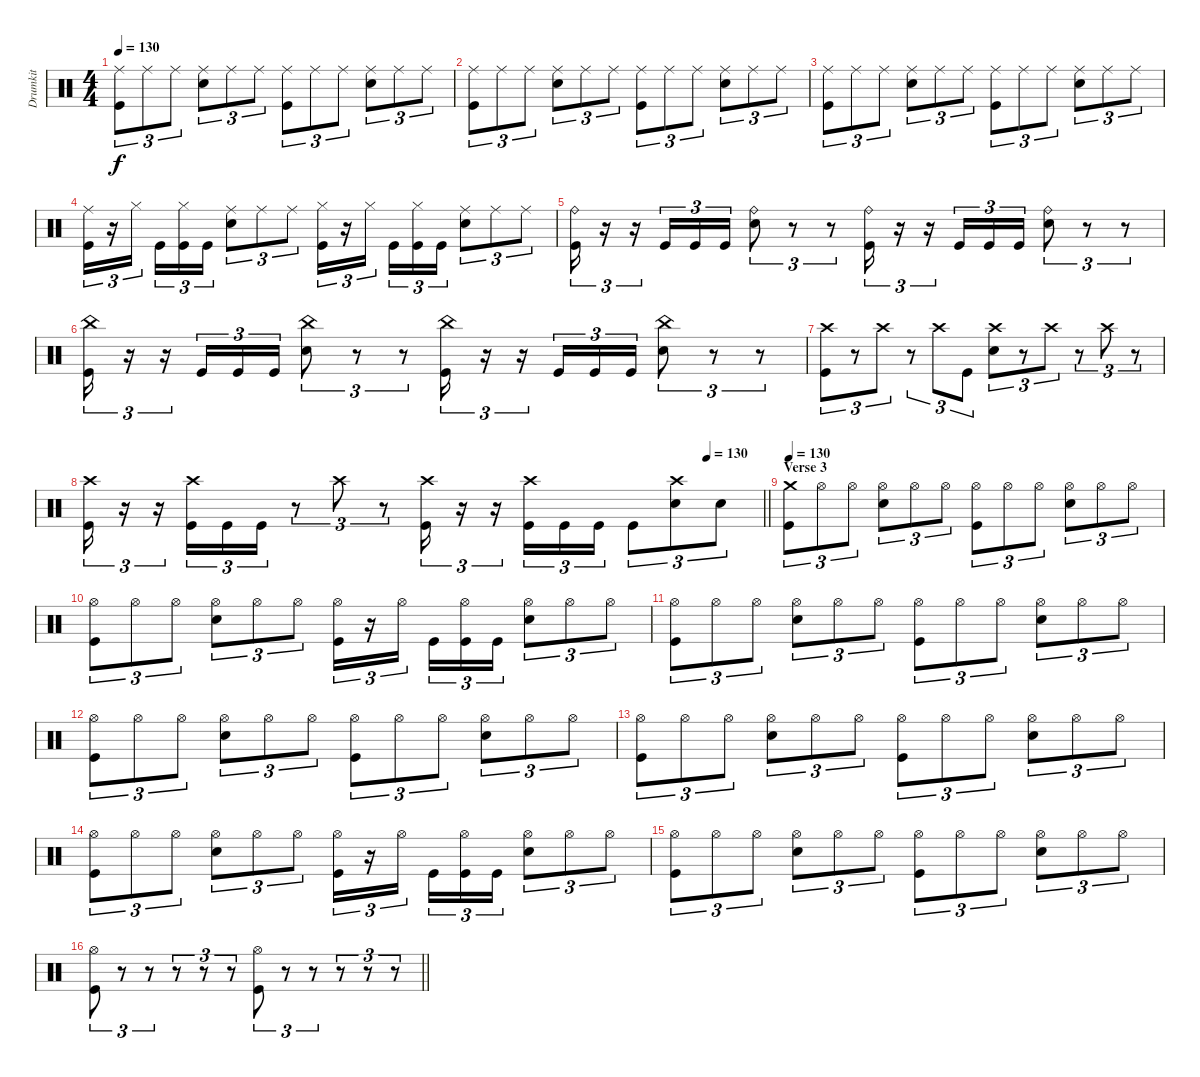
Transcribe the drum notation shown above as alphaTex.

\track ("Drumkit" "Drumkit") {instrument percussion}
\staff {score}
\articulation defaults
\ts (4 4)
\tempo 130
\clef neutral
\ks c
("Kick (hit)" "Ride (middle)").8{tu (3 2) dy f} "Ride (middle)".8{tu (3 2)} "Ride (middle)".8{tu (3 2)} ("Snare (hit) 2" "Ride (middle)").8{tu (3 2)} "Ride (middle)".8{tu (3 2)} "Ride (middle)".8{tu (3 2)} ("Kick (hit)" "Ride (middle)").8{tu (3 2)} "Ride (middle)".8{tu (3 2)} "Ride (middle)".8{tu (3 2)} ("Snare (hit) 2" "Ride (middle)").8{tu (3 2)} "Ride (middle)".8{tu (3 2)} "Ride (middle)".8{tu (3 2)} |
("Kick (hit)" "Ride (middle)").8{tu (3 2)} "Ride (middle)".8{tu (3 2)} "Ride (middle)".8{tu (3 2)} ("Snare (hit) 2" "Ride (middle)").8{tu (3 2)} "Ride (middle)".8{tu (3 2)} "Ride (middle)".8{tu (3 2)} ("Kick (hit)" "Ride (middle)").8{tu (3 2)} "Ride (middle)".8{tu (3 2)} "Ride (middle)".8{tu (3 2)} ("Snare (hit) 2" "Ride (middle)").8{tu (3 2)} "Ride (middle)".8{tu (3 2)} "Ride (middle)".8{tu (3 2)} |
("Kick (hit)" "Ride (middle)").8{tu (3 2)} "Ride (middle)".8{tu (3 2)} "Ride (middle)".8{tu (3 2)} ("Snare (hit) 2" "Ride (middle)").8{tu (3 2)} "Ride (middle)".8{tu (3 2)} "Ride (middle)".8{tu (3 2)} ("Kick (hit)" "Ride (middle)").8{tu (3 2)} "Ride (middle)".8{tu (3 2)} "Ride (middle)".8{tu (3 2)} ("Snare (hit) 2" "Ride (middle)").8{tu (3 2)} "Ride (middle)".8{tu (3 2)} "Ride (middle)".8{tu (3 2)} |
("Kick (hit)" "Ride (middle)").16{tu (3 2)} r.16{tu (3 2)} "Hi-Hat (closed)".16{tu (3 2)} "Kick (hit)".16{tu (3 2)} ("Kick (hit)" "Hi-Hat (closed)").16{tu (3 2)} "Kick (hit)".16{tu (3 2)} ("Snare (hit) 2" "Ride (middle)").8{tu (3 2)} "Ride (middle)".8{tu (3 2)} "Ride (middle)".8{tu (3 2)} ("Kick (hit)" "Hi-Hat (closed)").16{tu (3 2)} r.16{tu (3 2)} "Hi-Hat (closed)".16{tu (3 2)} "Kick (hit)".16{tu (3 2)} ("Kick (hit)" "Hi-Hat (closed)").16{tu (3 2)} "Kick (hit)".16{tu (3 2)} ("Snare (hit) 2" "Ride (middle)").8{tu (3 2)} "Ride (middle)".8{tu (3 2)} "Ride (middle)".8{tu (3 2)} |
("Kick (hit)" "Ride (bell)").16{tu (3 2)} r.16{tu (3 2)} r.16{tu (3 2)} "Kick (hit)".16{tu (3 2)} "Kick (hit)".16{tu (3 2)} "Kick (hit)".16{tu (3 2)} ("Snare (hit) 2" "Ride (bell)").8{tu (3 2)} r.8{tu (3 2)} r.8{tu (3 2)} ("Kick (hit)" "Ride (bell)").16{tu (3 2)} r.16{tu (3 2)} r.16{tu (3 2)} "Kick (hit)".16{tu (3 2)} "Kick (hit)".16{tu (3 2)} "Kick (hit)".16{tu (3 2)} ("Snare (hit) 2" "Ride (bell)").8{tu (3 2)} r.8{tu (3 2)} r.8{tu (3 2)} |
("Kick (hit)" "China (hit)").16{tu (3 2)} r.16{tu (3 2)} r.16{tu (3 2)} "Kick (hit)".16{tu (3 2)} "Kick (hit)".16{tu (3 2)} "Kick (hit)".16{tu (3 2)} ("Snare (hit) 2" "China (hit)").8{tu (3 2)} r.8{tu (3 2)} r.8{tu (3 2)} ("Kick (hit)" "China (hit)").16{tu (3 2)} r.16{tu (3 2)} r.16{tu (3 2)} "Kick (hit)".16{tu (3 2)} "Kick (hit)".16{tu (3 2)} "Kick (hit)".16{tu (3 2)} ("Snare (hit) 2" "China (hit)").8{tu (3 2)} r.8{tu (3 2)} r.8{tu (3 2)} |
("Kick (hit)" "Crash high (hit)").8{tu (3 2)} r.8{tu (3 2)} "Crash high (hit)".8{tu (3 2)} r.8{tu (3 2)} "Crash high (hit)".8{tu (3 2)} "Kick (hit)".8{tu (3 2)} ("Snare (hit) 2" "Crash high (hit)").8{tu (3 2)} r.8{tu (3 2)} "Crash high (hit)".8{tu (3 2)} r.8{tu (3 2)} "Crash high (hit)".8{tu (3 2)} r.8{tu (3 2)} |
\tempo (130 0.9166666666666666)
\barLineRight lightlight
("Kick (hit)" "Crash high (hit)").16{tu (3 2)} r.16{tu (3 2)} r.16{tu (3 2)} ("Kick (hit)" "Crash high (hit)").16{tu (3 2)} "Kick (hit)".16{tu (3 2)} "Kick (hit)".16{tu (3 2)} r.8{tu (3 2)} "Crash high (hit)".8{tu (3 2)} r.8{tu (3 2)} ("Kick (hit)" "Crash high (hit)").16{tu (3 2)} r.16{tu (3 2)} r.16{tu (3 2)} ("Kick (hit)" "Crash high (hit)").16{tu (3 2)} "Kick (hit)".16{tu (3 2)} "Kick (hit)".16{tu (3 2)} "Kick (hit)".8{tu (3 2)} ("Crash high (hit)" "Snare (hit) 2").8{tu (3 2)} "Snare (hit) 2".8{tu (3 2)} |
\section ("" "Verse 3")
\tempo 130
("Crash medium (hit)" "Kick (hit)").8{tu (3 2)} "Hi-Hat (open)".8{tu (3 2)} "Hi-Hat (open)".8{tu (3 2)} ("Hi-Hat (open)" "Snare (hit) 2").8{tu (3 2)} "Hi-Hat (open)".8{tu (3 2)} "Hi-Hat (open)".8{tu (3 2)} ("Hi-Hat (open)" "Kick (hit)").8{tu (3 2)} "Hi-Hat (open)".8{tu (3 2)} "Hi-Hat (open)".8{tu (3 2)} ("Hi-Hat (open)" "Snare (hit) 2").8{tu (3 2)} "Hi-Hat (open)".8{tu (3 2)} "Hi-Hat (open)".8{tu (3 2)} |
("Hi-Hat (open)" "Kick (hit)").8{tu (3 2)} "Hi-Hat (open)".8{tu (3 2)} "Hi-Hat (open)".8{tu (3 2)} ("Hi-Hat (open)" "Snare (hit) 2").8{tu (3 2)} "Hi-Hat (open)".8{tu (3 2)} "Hi-Hat (open)".8{tu (3 2)} ("Hi-Hat (open)" "Kick (hit)").16{tu (3 2)} r.16{tu (3 2)} "Hi-Hat (open)".16{tu (3 2)} "Kick (hit)".16{tu (3 2)} ("Hi-Hat (open)" "Kick (hit)").16{tu (3 2)} "Kick (hit)".16{tu (3 2)} ("Hi-Hat (open)" "Snare (hit) 2").8{tu (3 2)} "Hi-Hat (open)".8{tu (3 2)} "Hi-Hat (open)".8{tu (3 2)} |
("Hi-Hat (open)" "Kick (hit)").8{tu (3 2)} "Hi-Hat (open)".8{tu (3 2)} "Hi-Hat (open)".8{tu (3 2)} ("Hi-Hat (open)" "Snare (hit) 2").8{tu (3 2)} "Hi-Hat (open)".8{tu (3 2)} "Hi-Hat (open)".8{tu (3 2)} ("Hi-Hat (open)" "Kick (hit)").8{tu (3 2)} "Hi-Hat (open)".8{tu (3 2)} "Hi-Hat (open)".8{tu (3 2)} ("Hi-Hat (open)" "Snare (hit) 2").8{tu (3 2)} "Hi-Hat (open)".8{tu (3 2)} "Hi-Hat (open)".8{tu (3 2)} |
("Hi-Hat (open)" "Kick (hit)").8{tu (3 2)} "Hi-Hat (open)".8{tu (3 2)} "Hi-Hat (open)".8{tu (3 2)} ("Hi-Hat (open)" "Snare (hit) 2").8{tu (3 2)} "Hi-Hat (open)".8{tu (3 2)} "Hi-Hat (open)".8{tu (3 2)} ("Hi-Hat (open)" "Kick (hit)").8{tu (3 2)} "Hi-Hat (open)".8{tu (3 2)} "Hi-Hat (open)".8{tu (3 2)} ("Hi-Hat (open)" "Snare (hit) 2").8{tu (3 2)} "Hi-Hat (open)".8{tu (3 2)} "Hi-Hat (open)".8{tu (3 2)} |
("Hi-Hat (open)" "Kick (hit)").8{tu (3 2)} "Hi-Hat (open)".8{tu (3 2)} "Hi-Hat (open)".8{tu (3 2)} ("Hi-Hat (open)" "Snare (hit) 2").8{tu (3 2)} "Hi-Hat (open)".8{tu (3 2)} "Hi-Hat (open)".8{tu (3 2)} ("Hi-Hat (open)" "Kick (hit)").8{tu (3 2)} "Hi-Hat (open)".8{tu (3 2)} "Hi-Hat (open)".8{tu (3 2)} ("Hi-Hat (open)" "Snare (hit) 2").8{tu (3 2)} "Hi-Hat (open)".8{tu (3 2)} "Hi-Hat (open)".8{tu (3 2)} |
("Hi-Hat (open)" "Kick (hit)").8{tu (3 2)} "Hi-Hat (open)".8{tu (3 2)} "Hi-Hat (open)".8{tu (3 2)} ("Hi-Hat (open)" "Snare (hit) 2").8{tu (3 2)} "Hi-Hat (open)".8{tu (3 2)} "Hi-Hat (open)".8{tu (3 2)} ("Hi-Hat (open)" "Kick (hit)").16{tu (3 2)} r.16{tu (3 2)} "Hi-Hat (open)".16{tu (3 2)} "Kick (hit)".16{tu (3 2)} ("Hi-Hat (open)" "Kick (hit)").16{tu (3 2)} "Kick (hit)".16{tu (3 2)} ("Hi-Hat (open)" "Snare (hit) 2").8{tu (3 2)} "Hi-Hat (open)".8{tu (3 2)} "Hi-Hat (open)".8{tu (3 2)} |
("Hi-Hat (open)" "Kick (hit)").8{tu (3 2)} "Hi-Hat (open)".8{tu (3 2)} "Hi-Hat (open)".8{tu (3 2)} ("Hi-Hat (open)" "Snare (hit) 2").8{tu (3 2)} "Hi-Hat (open)".8{tu (3 2)} "Hi-Hat (open)".8{tu (3 2)} ("Hi-Hat (open)" "Kick (hit)").8{tu (3 2)} "Hi-Hat (open)".8{tu (3 2)} "Hi-Hat (open)".8{tu (3 2)} ("Hi-Hat (open)" "Snare (hit) 2").8{tu (3 2)} "Hi-Hat (open)".8{tu (3 2)} "Hi-Hat (open)".8{tu (3 2)} |
\barLineRight lightlight
("Hi-Hat (open)" "Kick (hit)").8{tu (3 2)} r.8{tu (3 2)} r.8{tu (3 2)} r.8{tu (3 2)} r.8{tu (3 2)} r.8{tu (3 2)} ("Hi-Hat (open)" "Kick (hit)").8{tu (3 2)} r.8{tu (3 2)} r.8{tu (3 2)} r.8{tu (3 2)} r.8{tu (3 2)} r.8{tu (3 2)}
